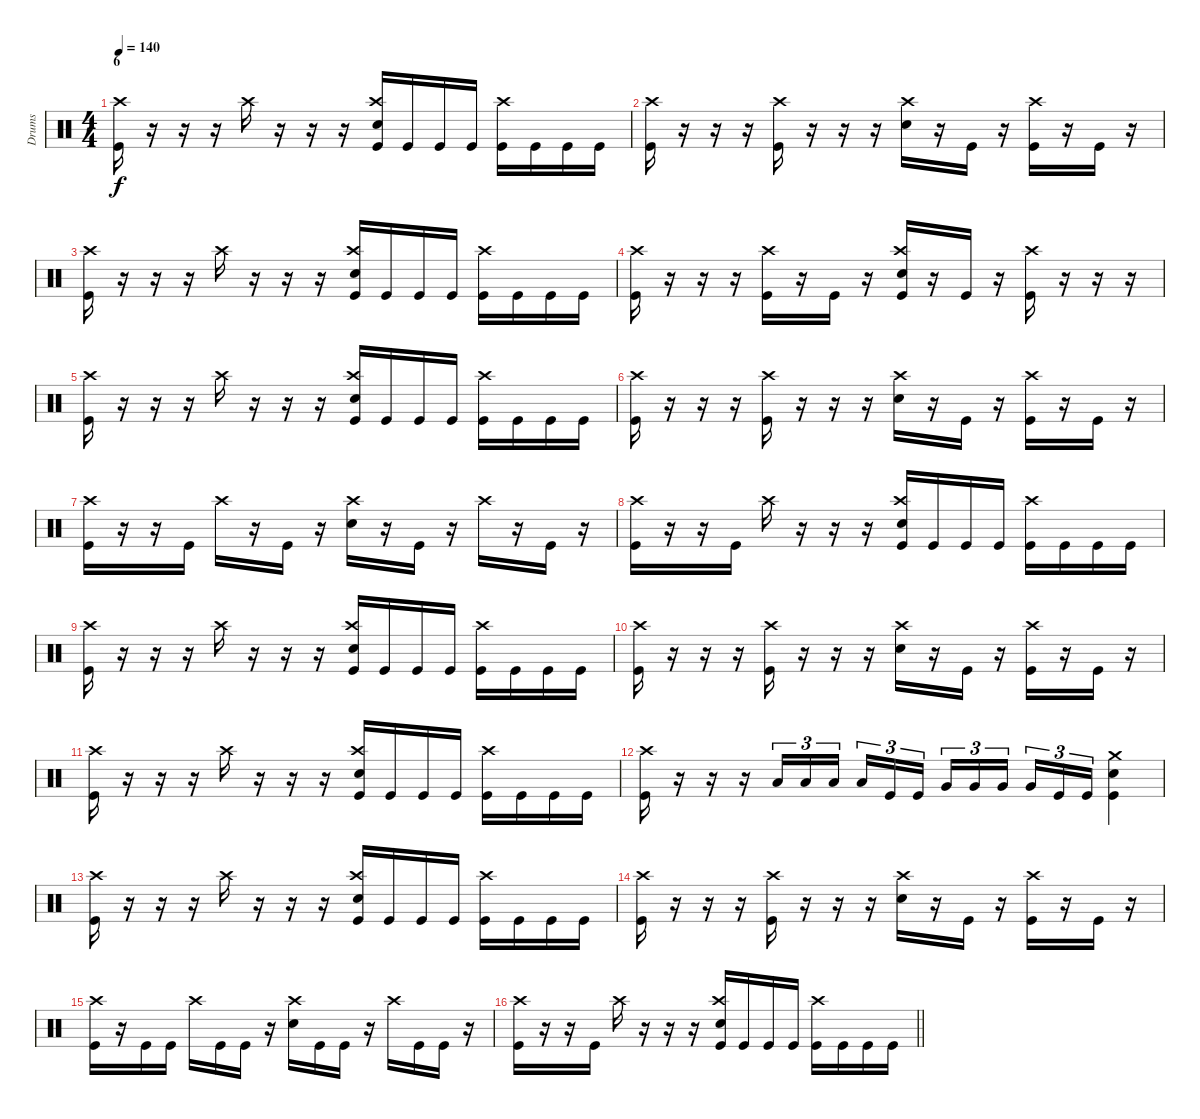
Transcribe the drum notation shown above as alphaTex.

\track ("Drums" "Drums") {instrument percussion}
\staff {score}
\articulation defaults
\ts (4 4)
\section ("" "6")
\tempo 140
\clef neutral
\ks c
("Kick (hit)" "Crash high (hit)").16{dy f} r.16 r.16 r.16 "Crash high (hit)".16 r.16 r.16 r.16 ("Kick (hit)" "Snare (hit) 2" "Crash high (hit)").16 "Kick (hit)".16 "Kick (hit)".16 "Kick (hit)".16 ("Kick (hit)" "Crash high (hit)").16 "Kick (hit)".16 "Kick (hit)".16 "Kick (hit)".16 |
("Kick (hit)" "Crash high (hit)").16 r.16 r.16 r.16 ("Kick (hit)" "Crash high (hit)").16 r.16 r.16 r.16 ("Snare (hit) 2" "Crash high (hit)").16 r.16 "Kick (hit)".16 r.16 ("Kick (hit)" "Crash high (hit)").16 r.16 "Kick (hit)".16 r.16 |
("Kick (hit)" "Crash high (hit)").16 r.16 r.16 r.16 "Crash high (hit)".16 r.16 r.16 r.16 ("Kick (hit)" "Snare (hit) 2" "Crash high (hit)").16 "Kick (hit)".16 "Kick (hit)".16 "Kick (hit)".16 ("Kick (hit)" "Crash high (hit)").16 "Kick (hit)".16 "Kick (hit)".16 "Kick (hit)".16 |
("Kick (hit)" "Crash high (hit)").16 r.16 r.16 r.16 ("Kick (hit)" "Crash high (hit)").16 r.16 "Kick (hit)".16 r.16 ("Kick (hit)" "Snare (hit) 2" "Crash high (hit)").16 r.16 "Kick (hit)".16 r.16 ("Kick (hit)" "Crash high (hit)").16 r.16 r.16 r.16 |
("Kick (hit)" "Crash high (hit)").16 r.16 r.16 r.16 "Crash high (hit)".16 r.16 r.16 r.16 ("Kick (hit)" "Snare (hit) 2" "Crash high (hit)").16 "Kick (hit)".16 "Kick (hit)".16 "Kick (hit)".16 ("Kick (hit)" "Crash high (hit)").16 "Kick (hit)".16 "Kick (hit)".16 "Kick (hit)".16 |
("Kick (hit)" "Crash high (hit)").16 r.16 r.16 r.16 ("Kick (hit)" "Crash high (hit)").16 r.16 r.16 r.16 ("Snare (hit) 2" "Crash high (hit)").16 r.16 "Kick (hit)".16 r.16 ("Kick (hit)" "Crash high (hit)").16 r.16 "Kick (hit)".16 r.16 |
("Kick (hit)" "Crash high (hit)").16 r.16 r.16 "Kick (hit)".16 "Crash high (hit)".16 r.16 "Kick (hit)".16 r.16 ("Snare (hit) 2" "Crash high (hit)").16 r.16 "Kick (hit)".16 r.16 "Crash high (hit)".16 r.16 "Kick (hit)".16 r.16 |
("Kick (hit)" "Crash high (hit)").16 r.16 r.16 "Kick (hit)".16 "Crash high (hit)".16 r.16 r.16 r.16 ("Kick (hit)" "Snare (hit) 2" "Crash high (hit)").16 "Kick (hit)".16 "Kick (hit)".16 "Kick (hit)".16 ("Kick (hit)" "Crash high (hit)").16 "Kick (hit)".16 "Kick (hit)".16 "Kick (hit)".16 |
("Kick (hit)" "Crash high (hit)").16 r.16 r.16 r.16 "Crash high (hit)".16 r.16 r.16 r.16 ("Kick (hit)" "Snare (hit) 2" "Crash high (hit)").16 "Kick (hit)".16 "Kick (hit)".16 "Kick (hit)".16 ("Kick (hit)" "Crash high (hit)").16 "Kick (hit)".16 "Kick (hit)".16 "Kick (hit)".16 |
("Kick (hit)" "Crash high (hit)").16 r.16 r.16 r.16 ("Kick (hit)" "Crash high (hit)").16 r.16 r.16 r.16 ("Snare (hit) 2" "Crash high (hit)").16 r.16 "Kick (hit)".16 r.16 ("Kick (hit)" "Crash high (hit)").16 r.16 "Kick (hit)".16 r.16 |
("Kick (hit)" "Crash high (hit)").16 r.16 r.16 r.16 "Crash high (hit)".16 r.16 r.16 r.16 ("Kick (hit)" "Snare (hit) 2" "Crash high (hit)").16 "Kick (hit)".16 "Kick (hit)".16 "Kick (hit)".16 ("Kick (hit)" "Crash high (hit)").16 "Kick (hit)".16 "Kick (hit)".16 "Kick (hit)".16 |
("Kick (hit)" "Crash high (hit)").16 r.16 r.16 r.16 "Low Tom (hit)".16{tu (3 2)} "Low Tom (hit)".16{tu (3 2)} "Low Tom (hit)".16{tu (3 2) beam splitsecondary} "Low Tom (hit)".16{tu (3 2)} "Kick (hit)".16{tu (3 2)} "Kick (hit)".16{tu (3 2)} "Very Low Tom (hit)".16{tu (3 2)} "Very Low Tom (hit)".16{tu (3 2)} "Very Low Tom (hit)".16{tu (3 2) beam splitsecondary} "Very Low Tom (hit)".16{tu (3 2)} "Kick (hit)".16{tu (3 2)} "Kick (hit)".16{tu (3 2)} ("Kick (hit)" "Snare (hit) 2" "Crash medium (hit)").4 |
("Kick (hit)" "Crash high (hit)").16 r.16 r.16 r.16 "Crash high (hit)".16 r.16 r.16 r.16 ("Kick (hit)" "Snare (hit) 2" "Crash high (hit)").16 "Kick (hit)".16 "Kick (hit)".16 "Kick (hit)".16 ("Kick (hit)" "Crash high (hit)").16 "Kick (hit)".16 "Kick (hit)".16 "Kick (hit)".16 |
("Kick (hit)" "Crash high (hit)").16 r.16 r.16 r.16 ("Kick (hit)" "Crash high (hit)").16 r.16 r.16 r.16 ("Snare (hit) 2" "Crash high (hit)").16 r.16 "Kick (hit)".16 r.16 ("Kick (hit)" "Crash high (hit)").16 r.16 "Kick (hit)".16 r.16 |
("Kick (hit)" "Crash high (hit)").16 r.16 "Kick (hit)".16 "Kick (hit)".16 "Crash high (hit)".16 "Kick (hit)".16 "Kick (hit)".16 r.16 ("Snare (hit) 2" "Crash high (hit)").16 "Kick (hit)".16 "Kick (hit)".16 r.16 "Crash high (hit)".16 "Kick (hit)".16 "Kick (hit)".16 r.16 |
\barLineRight lightlight
("Kick (hit)" "Crash high (hit)").16 r.16 r.16 "Kick (hit)".16 "Crash high (hit)".16 r.16 r.16 r.16 ("Kick (hit)" "Snare (hit) 2" "Crash high (hit)").16 "Kick (hit)".16 "Kick (hit)".16 "Kick (hit)".16 ("Kick (hit)" "Crash high (hit)").16 "Kick (hit)".16 "Kick (hit)".16 "Kick (hit)".16
